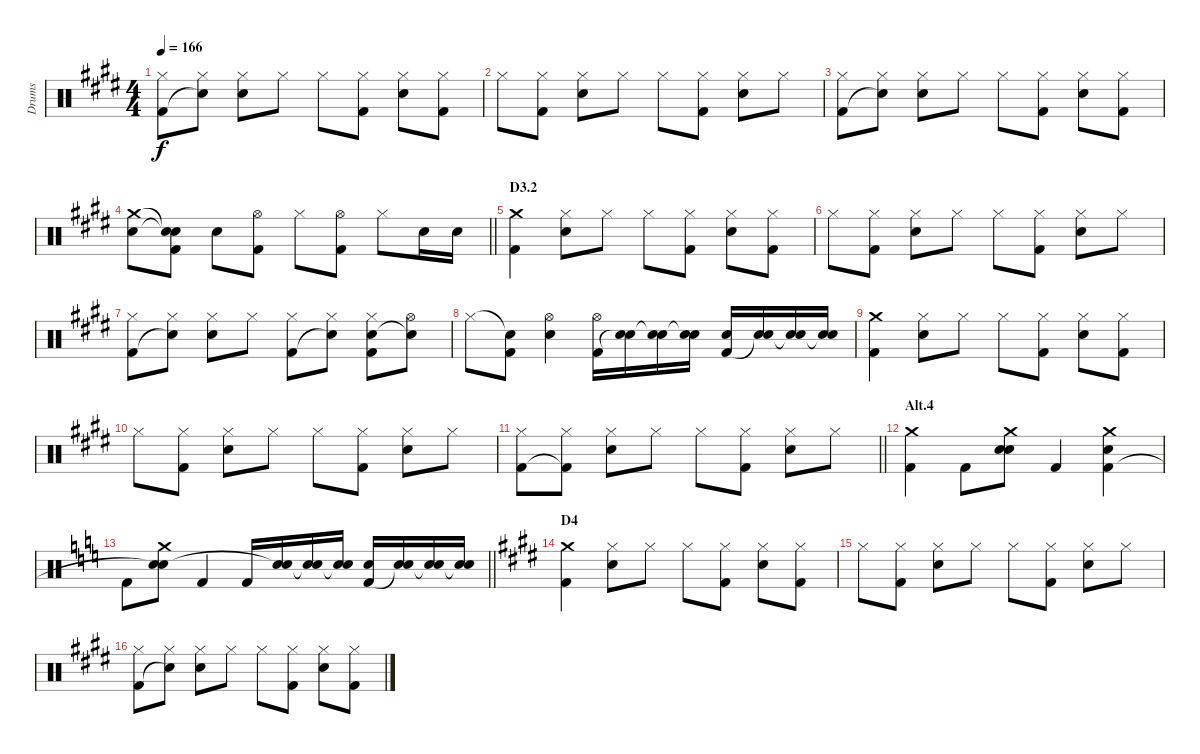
\track ("Drums" "Drums") {instrument percussion}
\staff {score}
\articulation defaults
\ts (4 4)
\tempo 166
\clef neutral
\ks e
("Hi-Hat (closed)" "Kick (hit) 2").8{dy f} ("Hi-Hat (closed)" "Snare (hit)"{t}).8 ("Hi-Hat (closed)" "Snare (hit) 2").8 "Hi-Hat (closed)".8 "Hi-Hat (closed)".8 ("Hi-Hat (closed)" "Kick (hit) 2").8 ("Hi-Hat (closed)" "Snare (hit) 2").8 ("Hi-Hat (closed)" "Kick (hit) 2").8 |
"Hi-Hat (closed)".8 ("Hi-Hat (closed)" "Kick (hit) 2").8 ("Hi-Hat (closed)" "Snare (hit) 2").8 "Hi-Hat (closed)".8 "Hi-Hat (closed)".8 ("Hi-Hat (closed)" "Kick (hit) 2").8 ("Hi-Hat (closed)" "Snare (hit) 2").8 "Hi-Hat (closed)".8 |
("Hi-Hat (closed)" "Kick (hit) 2").8 ("Hi-Hat (closed)" "Snare (hit)"{t}).8 ("Hi-Hat (closed)" "Snare (hit) 2").8 "Hi-Hat (closed)".8 "Hi-Hat (closed)".8 ("Hi-Hat (closed)" "Kick (hit) 2").8 ("Hi-Hat (closed)" "Snare (hit) 2").8 ("Hi-Hat (closed)" "Kick (hit) 2").8 |
\barLineRight lightlight
("Crash medium (hit)" "Snare (hit) 2").8 ("Snare (hit)"{t} "Snare (hit)"{t} "Kick (hit) 2").8 "Snare (hit) 2".8 ("Hi-Hat (open)" "Kick (hit) 2").8 "Hi-Hat (closed)".8 ("Hi-Hat (open)" "Kick (hit) 2").8 "Hi-Hat (closed)".8 "Snare (hit) 2".16 "Snare (hit) 2".16 |
\section ("" "D3.2")
("Crash medium (hit)" "Kick (hit) 2").4 ("Hi-Hat (closed)" "Snare (hit) 2").8 "Hi-Hat (closed)".8 "Hi-Hat (closed)".8 ("Hi-Hat (closed)" "Kick (hit) 2").8 ("Hi-Hat (closed)" "Snare (hit) 2").8 ("Hi-Hat (closed)" "Kick (hit) 2").8 |
"Hi-Hat (closed)".8 ("Hi-Hat (closed)" "Kick (hit) 2").8 ("Hi-Hat (closed)" "Snare (hit) 2").8 "Hi-Hat (closed)".8 "Hi-Hat (closed)".8 ("Hi-Hat (closed)" "Kick (hit) 2").8 ("Hi-Hat (closed)" "Snare (hit) 2").8 "Hi-Hat (closed)".8 |
("Hi-Hat (closed)" "Kick (hit) 2").8 ("Hi-Hat (closed)" "Snare (hit)"{t}).8 ("Hi-Hat (closed)" "Snare (hit) 2").8 "Hi-Hat (closed)".8 ("Hi-Hat (closed)" "Kick (hit) 2").8 ("Hi-Hat (closed)" "Snare (hit)"{t}).8 ("Hi-Hat (closed)" "Snare (hit) 2" "Kick (hit) 2").8 ("Hi-Hat (open)" "Snare (hit)"{t}).8 |
"Hi-Hat (closed)".8 ("Snare (hit)"{t} "Kick (hit) 2").8 ("Hi-Hat (open)" "Snare (hit) 2").4 ("Hi-Hat (open)" "Kick (hit) 2").16 ("Snare (hit) 2" "Snare (hit)"{t}).16 ("Snare (hit) 2" "Snare (hit)"{t}).16 ("Snare (hit) 2" "Snare (hit)"{t}).16 ("Snare (hit) 2" "Kick (hit) 2").16 ("Snare (hit) 2" "Snare (hit)"{t}).16 ("Snare (hit) 2" "Snare (hit)"{t}).16 ("Snare (hit) 2" "Snare (hit)"{t}).16 |
("Crash medium (hit)" "Kick (hit) 2").4 ("Hi-Hat (closed)" "Snare (hit) 2").8 "Hi-Hat (closed)".8 "Hi-Hat (closed)".8 ("Hi-Hat (closed)" "Kick (hit) 2").8 ("Hi-Hat (closed)" "Snare (hit) 2").8 ("Hi-Hat (closed)" "Kick (hit) 2").8 |
"Hi-Hat (closed)".8 ("Hi-Hat (closed)" "Kick (hit) 2").8 ("Hi-Hat (closed)" "Snare (hit) 2").8 "Hi-Hat (closed)".8 "Hi-Hat (closed)".8 ("Hi-Hat (closed)" "Kick (hit) 2").8 ("Hi-Hat (closed)" "Snare (hit) 2").8 "Hi-Hat (closed)".8 |
\barLineRight lightlight
("Hi-Hat (closed)" "Kick (hit) 2").8 ("Hi-Hat (closed)" "Kick (hit) 2"{t}).8 ("Hi-Hat (closed)" "Snare (hit) 2").8 "Hi-Hat (closed)".8 "Hi-Hat (closed)".8 ("Hi-Hat (closed)" "Kick (hit) 2").8 ("Hi-Hat (closed)" "Snare (hit) 2").8 "Hi-Hat (closed)".8 |
\section ("" "Alt.4")
("Crash medium (hit)" "Kick (hit) 2").4 "Kick (hit) 2".8 ("Crash medium (hit)" "Snare (hit) 2" "Snare (hit)").8 "Kick (hit) 2".4 ("Crash medium (hit)" "Snare (hit) 2" "Kick (hit) 2").4 |
\barLineRight lightlight
\ks c "Kick (hit) 2".8
("Crash medium (hit)" "Snare (hit) 2" "Snare (hit)"{t}).8 "Kick (hit) 2".4 "Kick (hit) 2".16 ("Snare (hit) 2" "Snare (hit)"{t}).16 ("Snare (hit) 2" "Snare (hit)"{t}).16 ("Snare (hit) 2" "Snare (hit)"{t}).16 ("Snare (hit) 2" "Kick (hit) 2").16 ("Snare (hit) 2" "Snare (hit)"{t}).16 ("Snare (hit) 2" "Snare (hit)"{t}).16 ("Snare (hit) 2" "Snare (hit)"{t}).16 |
\section ("" "D4")
\ks e
("Crash medium (hit)" "Kick (hit) 2").4 ("Hi-Hat (closed)" "Snare (hit) 2").8 "Hi-Hat (closed)".8 "Hi-Hat (closed)".8 ("Hi-Hat (closed)" "Kick (hit) 2").8 ("Hi-Hat (closed)" "Snare (hit) 2").8 ("Hi-Hat (closed)" "Kick (hit) 2").8 |
"Hi-Hat (closed)".8 ("Hi-Hat (closed)" "Kick (hit) 2").8 ("Hi-Hat (closed)" "Snare (hit) 2").8 "Hi-Hat (closed)".8 "Hi-Hat (closed)".8 ("Hi-Hat (closed)" "Kick (hit) 2").8 ("Hi-Hat (closed)" "Snare (hit) 2").8 "Hi-Hat (closed)".8 |
("Hi-Hat (closed)" "Kick (hit) 2").8 ("Hi-Hat (closed)" "Snare (hit)"{t}).8 ("Hi-Hat (closed)" "Snare (hit) 2").8 "Hi-Hat (closed)".8 "Hi-Hat (closed)".8 ("Hi-Hat (closed)" "Kick (hit) 2").8 ("Hi-Hat (closed)" "Snare (hit) 2").8 ("Hi-Hat (closed)" "Kick (hit) 2").8
